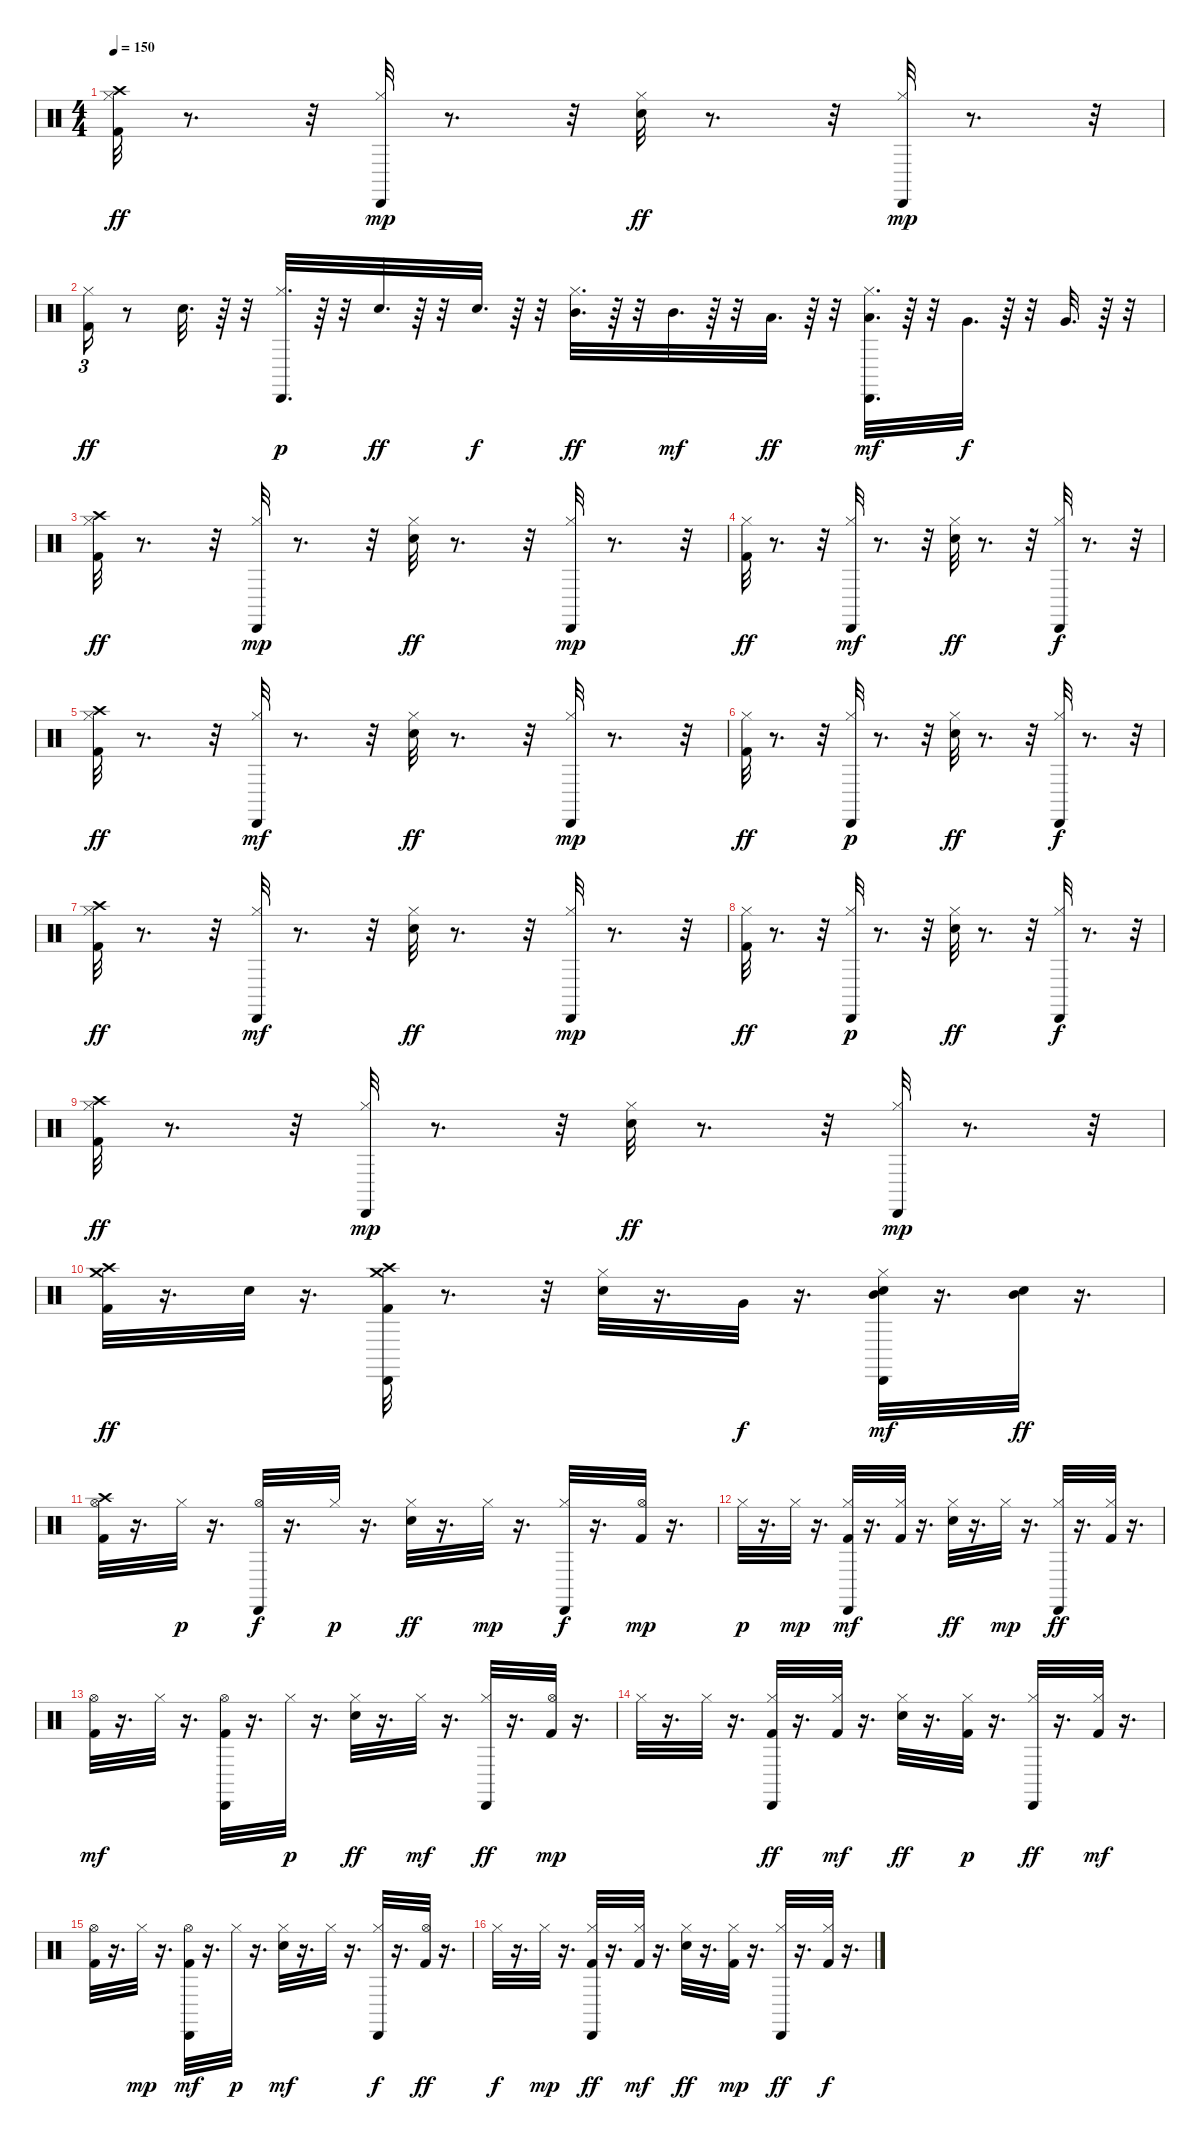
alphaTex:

\track "" {instrument percussion}
\staff {score}
\articulation defaults
\ts (4 4)
\tempo 150
\clef neutral
\ks c
("Kick (hit) 2" "Hi-Hat (closed)" "Crash high (hit)").32{dy ff} r.8{d} r.32 ("Hi-Hat (closed)" "Cabasa (hit)").32{dy mp} r.8{d} r.32 ("Hi-Hat (closed)" "Snare (hit) 2").32{dy ff} r.8{d} r.32 ("Hi-Hat (closed)" "Cabasa (hit)").32{dy mp} r.8{d} r.32 |
("Kick (hit) 2" "Hi-Hat (closed)").16{tu (3 2) dy ff} r.8 "Snare (hit) 2".32{d} r.64 r.32 ("Hi-Hat (closed)" "Cabasa (hit)").32{d dy p} r.64 r.32 "Snare (hit) 2".32{d dy ff} r.64 r.32 "Snare (hit) 2".32{d dy f} r.64 r.32 ("Hi-Hat (closed)" "Mid Tom (hit)").32{d dy ff} r.64 r.32 "Mid Tom (hit)".32{d dy mf} r.64 r.32 "Low Tom (hit)".32{d dy ff} r.64 r.32 ("Hi-Hat (closed)" "Low Tom (hit)" "Cabasa (hit)").32{d dy mf} r.64 r.32 "Very Low Tom (hit)".32{d dy f} r.64 r.32 "Very Low Tom (hit)".32{d} r.64 r.32 |
("Kick (hit) 2" "Hi-Hat (closed)" "Crash high (hit)").32{dy ff} r.8{d} r.32 ("Hi-Hat (closed)" "Cabasa (hit)").32{dy mp} r.8{d} r.32 ("Hi-Hat (closed)" "Snare (hit) 2").32{dy ff} r.8{d} r.32 ("Hi-Hat (closed)" "Cabasa (hit)").32{dy mp} r.8{d} r.32 |
("Kick (hit) 2" "Hi-Hat (closed)").32{dy ff} r.8{d} r.32 ("Hi-Hat (closed)" "Cabasa (hit)").32{dy mf} r.8{d} r.32 ("Hi-Hat (closed)" "Snare (hit) 2").32{dy ff} r.8{d} r.32 ("Hi-Hat (closed)" "Cabasa (hit)").32{dy f} r.8{d} r.32 |
("Kick (hit) 2" "Hi-Hat (closed)" "Crash high (hit)").32{dy ff} r.8{d} r.32 ("Hi-Hat (closed)" "Cabasa (hit)").32{dy mf} r.8{d} r.32 ("Hi-Hat (closed)" "Snare (hit) 2").32{dy ff} r.8{d} r.32 ("Hi-Hat (closed)" "Cabasa (hit)").32{dy mp} r.8{d} r.32 |
("Kick (hit) 2" "Hi-Hat (closed)").32{dy ff} r.8{d} r.32 ("Hi-Hat (closed)" "Cabasa (hit)").32{dy p} r.8{d} r.32 ("Hi-Hat (closed)" "Snare (hit) 2").32{dy ff} r.8{d} r.32 ("Hi-Hat (closed)" "Cabasa (hit)").32{dy f} r.8{d} r.32 |
("Kick (hit) 2" "Hi-Hat (closed)" "Crash high (hit)").32{dy ff} r.8{d} r.32 ("Hi-Hat (closed)" "Cabasa (hit)").32{dy mf} r.8{d} r.32 ("Hi-Hat (closed)" "Snare (hit) 2").32{dy ff} r.8{d} r.32 ("Hi-Hat (closed)" "Cabasa (hit)").32{dy mp} r.8{d} r.32 |
("Kick (hit) 2" "Hi-Hat (closed)").32{dy ff} r.8{d} r.32 ("Hi-Hat (closed)" "Cabasa (hit)").32{dy p} r.8{d} r.32 ("Hi-Hat (closed)" "Snare (hit) 2").32{dy ff} r.8{d} r.32 ("Hi-Hat (closed)" "Cabasa (hit)").32{dy f} r.8{d} r.32 |
("Kick (hit) 2" "Hi-Hat (closed)" "Crash high (hit)").32{dy ff} r.8{d} r.32 ("Hi-Hat (closed)" "Cabasa (hit)").32{dy mp} r.8{d} r.32 ("Hi-Hat (closed)" "Snare (hit) 2").32{dy ff} r.8{d} r.32 ("Hi-Hat (closed)" "Cabasa (hit)").32{dy mp} r.8{d} r.32 |
("Kick (hit) 2" "Crash medium (hit)" "Crash high (hit)").32{dy ff} r.16{d} "Snare (hit) 2".32 r.16{d} ("Kick (hit) 2" "Crash medium (hit)" "Cabasa (hit)" "Crash high (hit)").32 r.8{d} r.32 ("Hi-Hat (closed)" "Snare (hit) 2").32 r.16{d} "Very Low Tom (hit)".32{dy f} r.16{d} ("Hi-Hat (closed)" "Mid Tom (hit)" "Snare (hit) 2" "Cabasa (hit)").32{dy mf} r.16{d} ("Mid Tom (hit)" "Snare (hit) 2").32{dy ff} r.16{d} |
("Kick (hit) 2" "Crash high (hit)" "Hi-Hat (open)").32 r.16{d} "Hi-Hat (closed)".32{dy p} r.16{d} ("Hi-Hat (open)" "Cabasa (hit)").32{dy f} r.16{d} "Hi-Hat (closed)".32{dy p} r.16{d} ("Hi-Hat (closed)" "Snare (hit) 2").32{dy ff} r.16{d} "Hi-Hat (closed)".32{dy mp} r.16{d} ("Hi-Hat (closed)" "Cabasa (hit)").32{dy f} r.16{d} ("Hi-Hat (open)" "Kick (hit) 2").32{dy mp} r.16{d} |
"Hi-Hat (closed)".32{dy p} r.16{d} "Hi-Hat (closed)".32{dy mp} r.16{d} ("Kick (hit) 2" "Hi-Hat (closed)" "Cabasa (hit)").32{dy mf} r.16{d} ("Hi-Hat (closed)" "Kick (hit) 2").32 r.16{d} ("Hi-Hat (closed)" "Snare (hit) 2").32{dy ff} r.16{d} "Hi-Hat (closed)".32{dy mp} r.16{d} ("Hi-Hat (closed)" "Cabasa (hit)").32{dy ff} r.16{d} ("Hi-Hat (closed)" "Kick (hit) 2").32 r.16{d} |
("Kick (hit) 2" "Hi-Hat (open)").32{dy mf} r.16{d} "Hi-Hat (closed)".32 r.16{d} ("Kick (hit) 2" "Hi-Hat (open)" "Cabasa (hit)").32 r.16{d} "Hi-Hat (closed)".32{dy p} r.16{d} ("Hi-Hat (closed)" "Snare (hit) 2").32{dy ff} r.16{d} "Hi-Hat (closed)".32{dy mf} r.16{d} ("Hi-Hat (closed)" "Cabasa (hit)").32{dy ff} r.16{d} ("Hi-Hat (open)" "Kick (hit) 2").32{dy mp} r.16{d} |
"Hi-Hat (closed)".32 r.16{d} "Hi-Hat (closed)".32 r.16{d} ("Kick (hit) 2" "Hi-Hat (closed)" "Cabasa (hit)").32{dy ff} r.16{d} ("Hi-Hat (closed)" "Kick (hit) 2").32{dy mf} r.16{d} ("Hi-Hat (closed)" "Snare (hit) 2").32{dy ff} r.16{d} ("Hi-Hat (closed)" "Kick (hit) 2").32{dy p} r.16{d} ("Hi-Hat (closed)" "Cabasa (hit)").32{dy ff} r.16{d} ("Hi-Hat (closed)" "Kick (hit) 2").32{dy mf} r.16{d} |
("Kick (hit) 2" "Hi-Hat (open)").32 r.16{d} "Hi-Hat (closed)".32{dy mp} r.16{d} ("Kick (hit) 2" "Hi-Hat (open)" "Cabasa (hit)").32{dy mf} r.16{d} "Hi-Hat (closed)".32{dy p} r.16{d} ("Hi-Hat (closed)" "Snare (hit) 2").32{dy mf} r.16{d} "Hi-Hat (closed)".32 r.16{d} ("Hi-Hat (closed)" "Cabasa (hit)").32{dy f} r.16{d} ("Hi-Hat (open)" "Kick (hit) 2").32{dy ff} r.16{d} |
"Hi-Hat (closed)".32{dy f} r.16{d} "Hi-Hat (closed)".32{dy mp} r.16{d} ("Kick (hit) 2" "Hi-Hat (closed)" "Cabasa (hit)").32{dy ff} r.16{d} ("Hi-Hat (closed)" "Kick (hit) 2").32{dy mf} r.16{d} ("Hi-Hat (closed)" "Snare (hit) 2").32{dy ff} r.16{d} ("Hi-Hat (closed)" "Kick (hit) 2").32{dy mp} r.16{d} ("Hi-Hat (closed)" "Cabasa (hit)").32{dy ff} r.16{d} ("Hi-Hat (closed)" "Kick (hit) 2").32{dy f} r.16{d}
